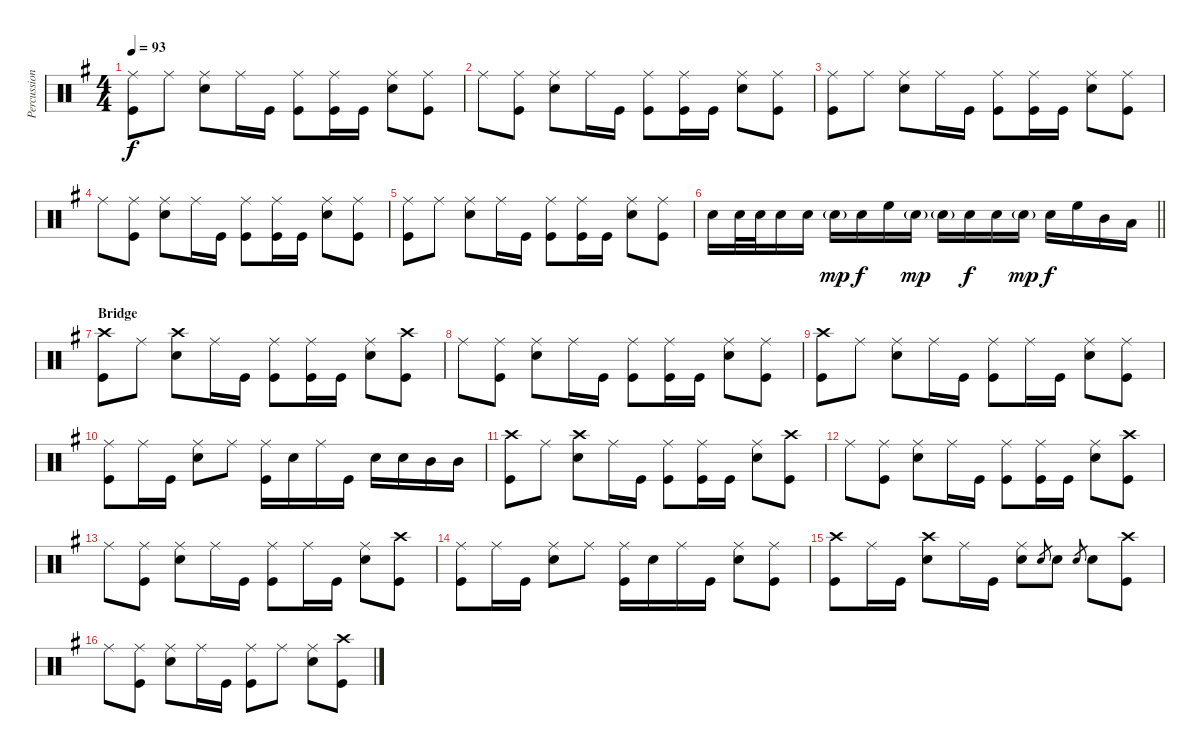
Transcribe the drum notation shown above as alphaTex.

\track ("Percussion" "Percussion") {instrument percussion}
\staff {score}
\articulation defaults
\ts (4 4)
\tempo 93
\clef neutral
\ks g
("Ride (middle)" "Kick (hit)").8{dy f} "Ride (middle)".8 ("Ride (middle)" "Snare (hit) 2").8 "Ride (middle)".16 "Kick (hit)".16 ("Ride (middle)" "Kick (hit)").8 ("Ride (middle)" "Kick (hit)").16 "Kick (hit)".16 ("Ride (middle)" "Snare (hit) 2").8 ("Ride (middle)" "Kick (hit)").8 |
"Ride (middle)".8 ("Ride (middle)" "Kick (hit)").8 ("Ride (middle)" "Snare (hit) 2").8 "Ride (middle)".16 "Kick (hit)".16 ("Ride (middle)" "Kick (hit)").8 ("Ride (middle)" "Kick (hit)").16 "Kick (hit)".16 ("Ride (middle)" "Snare (hit) 2").8 ("Ride (middle)" "Kick (hit)").8 |
("Ride (middle)" "Kick (hit)").8 "Ride (middle)".8 ("Ride (middle)" "Snare (hit) 2").8 "Ride (middle)".16 "Kick (hit)".16 ("Ride (middle)" "Kick (hit)").8 ("Ride (middle)" "Kick (hit)").16 "Kick (hit)".16 ("Ride (middle)" "Snare (hit) 2").8 ("Ride (middle)" "Kick (hit)").8 |
"Ride (middle)".8 ("Ride (middle)" "Kick (hit)").8 ("Ride (middle)" "Snare (hit) 2").8 "Ride (middle)".16 "Kick (hit)".16 ("Ride (middle)" "Kick (hit)").8 ("Ride (middle)" "Kick (hit)").16 "Kick (hit)".16 ("Ride (middle)" "Snare (hit) 2").8 ("Ride (middle)" "Kick (hit)").8 |
("Ride (middle)" "Kick (hit)").8 "Ride (middle)".8 ("Ride (middle)" "Snare (hit) 2").8 "Ride (middle)".16 "Kick (hit)".16 ("Ride (middle)" "Kick (hit)").8 ("Ride (middle)" "Kick (hit)").16 "Kick (hit)".16 ("Ride (middle)" "Snare (hit) 2").8 ("Ride (middle)" "Kick (hit)").8 |
\barLineRight lightlight "Snare (hit) 2".16 "Snare (hit) 2".32 "Snare (hit) 2".32 "Snare (hit) 2".16 "Snare (hit) 2".16 "Snare (hit) 2"{g}.16{dy mp} "Snare (hit) 2".16{dy f} "High Floor Tom (hit)".16 "Snare (hit) 2"{g}.16{dy mp} "Snare (hit) 2"{g}.16 "Snare (hit) 2".16{dy f} "Snare (hit) 2".16 "Snare (hit) 2"{g}.16{dy mp} "Snare (hit) 2".16{dy f} "High Floor Tom (hit)".16 "Mid Tom (hit)".16 "Low Floor Tom (hit)".16
|
\section ("" "Bridge")
("Crash high (hit)" "Kick (hit)").8 "Ride (middle)".8 ("Crash high (hit)" "Snare (hit) 2").8 "Ride (middle)".16 "Kick (hit)".16 ("Ride (middle)" "Kick (hit)").8 ("Ride (middle)" "Kick (hit)").16 "Kick (hit)".16 ("Ride (middle)" "Snare (hit) 2").8 ("Crash high (hit)" "Kick (hit)").8 |
"Ride (middle)".8 ("Ride (middle)" "Kick (hit)").8 ("Ride (middle)" "Snare (hit) 2").8 "Ride (middle)".16 "Kick (hit)".16 ("Ride (middle)" "Kick (hit)").8 ("Ride (middle)" "Kick (hit)").16 "Kick (hit)".16 ("Ride (middle)" "Snare (hit) 2").8 ("Ride (middle)" "Kick (hit)").8 |
("Crash high (hit)" "Kick (hit)").8 "Ride (middle)".8 ("Ride (middle)" "Snare (hit) 2").8 "Ride (middle)".16 "Kick (hit)".16 ("Ride (middle)" "Kick (hit)").8 "Ride (middle)".16 "Kick (hit)".16 ("Ride (middle)" "Snare (hit) 2").8 ("Ride (middle)" "Kick (hit)").8 |
("Ride (middle)" "Kick (hit)").8 "Ride (middle)".16 "Kick (hit)".16 ("Ride (middle)" "Snare (hit) 2").8 "Ride (middle)".8 ("Ride (middle)" "Kick (hit)").16 "Snare (hit) 2".16 "Ride (middle)".16 "Kick (hit)".16 "Snare (hit) 2".16 "Snare (hit) 2".16 "Mid Tom (hit)".16 "Mid Tom (hit)".16 |
("Crash high (hit)" "Kick (hit)").8 "Ride (middle)".8 ("Crash high (hit)" "Snare (hit) 2").8 "Ride (middle)".16 "Kick (hit)".16 ("Ride (middle)" "Kick (hit)").8 ("Ride (middle)" "Kick (hit)").16 "Kick (hit)".16 ("Ride (middle)" "Snare (hit) 2").8 ("Crash high (hit)" "Kick (hit)").8 |
"Ride (middle)".8 ("Ride (middle)" "Kick (hit)").8 ("Ride (middle)" "Snare (hit) 2").8 "Ride (middle)".16 "Kick (hit)".16 ("Ride (middle)" "Kick (hit)").8 ("Ride (middle)" "Kick (hit)").16 "Kick (hit)".16 ("Ride (middle)" "Snare (hit) 2").8 ("Crash high (hit)" "Kick (hit)").8 |
"Ride (middle)".8 ("Ride (middle)" "Kick (hit)").8 ("Ride (middle)" "Snare (hit) 2").8 "Ride (middle)".16 "Kick (hit)".16 ("Ride (middle)" "Kick (hit)").8 "Ride (middle)".16 "Kick (hit)".16 ("Ride (middle)" "Snare (hit) 2").8 ("Crash high (hit)" "Kick (hit)").8 |
("Ride (middle)" "Kick (hit)").8 "Ride (middle)".16 "Kick (hit)".16 ("Ride (middle)" "Snare (hit) 2").8 "Ride (middle)".8 ("Ride (middle)" "Kick (hit)").16 "Snare (hit) 2".16 "Ride (middle)".16 "Kick (hit)".16 ("Ride (middle)" "Snare (hit) 2").8 ("Ride (middle)" "Kick (hit)").8 |
("Crash high (hit)" "Kick (hit)").8 "Ride (middle)".16 "Kick (hit)".16 ("Crash high (hit)" "Snare (hit) 2").8 "Ride (middle)".16 "Kick (hit)".16 ("Ride (middle)" "Snare (hit) 2").8 "Snare (hit) 2".8{gr} "Snare (hit) 2".8 "Snare (hit) 2".8{gr} "Snare (hit) 2".8 ("Crash high (hit)" "Kick (hit)").8 |
"Ride (middle)".8 ("Ride (middle)" "Kick (hit)").8 ("Ride (middle)" "Snare (hit) 2").8 "Ride (middle)".16 "Kick (hit)".16 ("Ride (middle)" "Kick (hit)").8 "Ride (middle)".8 ("Ride (middle)" "Snare (hit) 2").8 ("Crash high (hit)" "Kick (hit)").8
